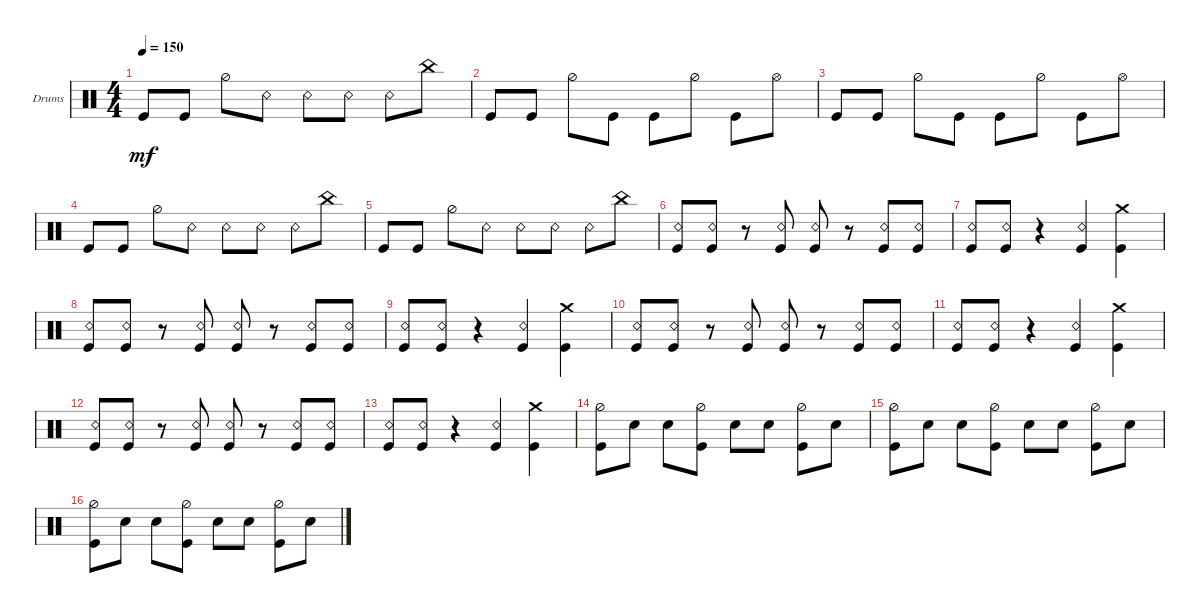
\bracketExtendMode groupsimilarinstruments
\firstSystemTrackNameOrientation horizontal
\otherSystemsTrackNameOrientation horizontal
\track ("Drumkit" "Drums") {instrument percussion}
\staff {score}
\articulation defaults
\ts (4 4)
\tempo 150
\clef neutral
\ks c "Kick (hit)".8{dy mf} "Kick (hit)".8 "Hi-Hat (half)".8 "Snare (rim shot)".8 "Snare (rim shot)".8 "Snare (rim shot)".8 "Snare (rim shot)".8 "China (hit)".8
|
"Kick (hit)".8 "Kick (hit)".8 "Hi-Hat (half)".8 "Kick (hit)".8 "Kick (hit)".8 "Hi-Hat (half)".8 "Kick (hit)".8 "Hi-Hat (open)".8 |
"Kick (hit)".8 "Kick (hit)".8 "Hi-Hat (half)".8 "Kick (hit)".8 "Kick (hit)".8 "Hi-Hat (half)".8 "Kick (hit)".8 "Hi-Hat (open)".8 |
"Kick (hit)".8 "Kick (hit)".8 "Hi-Hat (half)".8 "Snare (rim shot)".8 "Snare (rim shot)".8 "Snare (rim shot)".8 "Snare (rim shot)".8 "China (hit)".8 |
"Kick (hit)".8 "Kick (hit)".8 "Hi-Hat (half)".8 "Snare (rim shot)".8 "Snare (rim shot)".8 "Snare (rim shot)".8 "Snare (rim shot)".8 "China (hit)".8 |
("Snare (rim shot)" "Kick (hit)").8 ("Snare (rim shot)" "Kick (hit)").8 r.8 ("Snare (rim shot)" "Kick (hit)").8 ("Snare (rim shot)" "Kick (hit)").8 r.8 ("Snare (rim shot)" "Kick (hit)").8 ("Snare (rim shot)" "Kick (hit)").8 |
("Snare (rim shot)" "Kick (hit)").8 ("Snare (rim shot)" "Kick (hit)").8 r.4 ("Snare (rim shot)" "Kick (hit)").4 ("Crash medium (hit)" "Kick (hit)").4 |
("Snare (rim shot)" "Kick (hit)").8 ("Snare (rim shot)" "Kick (hit)").8 r.8 ("Snare (rim shot)" "Kick (hit)").8 ("Snare (rim shot)" "Kick (hit)").8 r.8 ("Snare (rim shot)" "Kick (hit)").8 ("Snare (rim shot)" "Kick (hit)").8 |
("Snare (rim shot)" "Kick (hit)").8 ("Snare (rim shot)" "Kick (hit)").8 r.4 ("Snare (rim shot)" "Kick (hit)").4 ("Crash medium (hit)" "Kick (hit)").4 |
("Snare (rim shot)" "Kick (hit)").8 ("Snare (rim shot)" "Kick (hit)").8 r.8 ("Snare (rim shot)" "Kick (hit)").8 ("Snare (rim shot)" "Kick (hit)").8 r.8 ("Snare (rim shot)" "Kick (hit)").8 ("Snare (rim shot)" "Kick (hit)").8 |
("Snare (rim shot)" "Kick (hit)").8 ("Snare (rim shot)" "Kick (hit)").8 r.4 ("Snare (rim shot)" "Kick (hit)").4 ("Crash medium (hit)" "Kick (hit)").4 |
("Snare (rim shot)" "Kick (hit)").8 ("Snare (rim shot)" "Kick (hit)").8 r.8 ("Snare (rim shot)" "Kick (hit)").8 ("Snare (rim shot)" "Kick (hit)").8 r.8 ("Snare (rim shot)" "Kick (hit)").8 ("Snare (rim shot)" "Kick (hit)").8 |
("Snare (rim shot)" "Kick (hit)").8 ("Snare (rim shot)" "Kick (hit)").8 r.4 ("Snare (rim shot)" "Kick (hit)").4 ("Crash medium (hit)" "Kick (hit)").4 |
("Hi-Hat (half)" "Kick (hit)").8 "Snare (hit) 2".8 "Snare (hit) 2".8 ("Hi-Hat (half)" "Kick (hit)").8 "Snare (hit) 2".8 "Snare (hit) 2".8 ("Hi-Hat (half)" "Kick (hit)").8 "Snare (hit) 2".8 |
("Hi-Hat (half)" "Kick (hit)").8 "Snare (hit) 2".8 "Snare (hit) 2".8 ("Hi-Hat (half)" "Kick (hit)").8 "Snare (hit) 2".8 "Snare (hit) 2".8 ("Hi-Hat (half)" "Kick (hit)").8 "Snare (hit) 2".8 |
("Hi-Hat (half)" "Kick (hit)").8 "Snare (hit) 2".8 "Snare (hit) 2".8 ("Hi-Hat (half)" "Kick (hit)").8 "Snare (hit) 2".8 "Snare (hit) 2".8 ("Hi-Hat (half)" "Kick (hit)").8 "Snare (hit) 2".8
